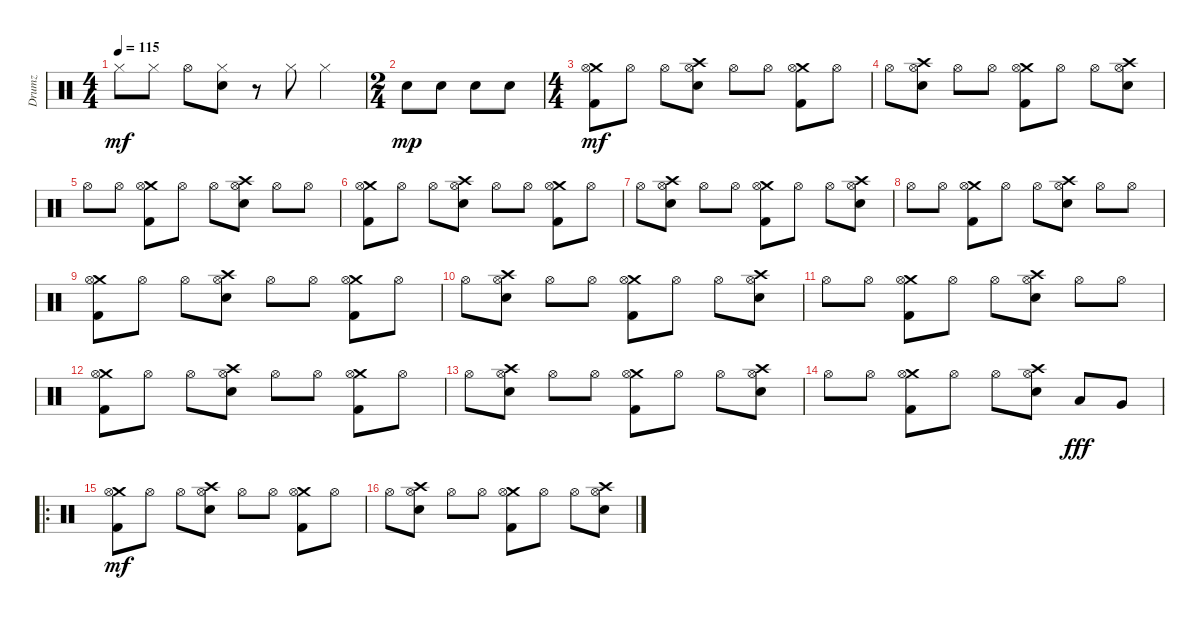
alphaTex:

\track ("Drumz" "Drumz") {instrument percussion}
\staff
\articulation defaults
\ts (4 4)
\tempo 115
\clef neutral
\ks c "Hi-Hat (closed)".8{dy mf} "Hi-Hat (closed)".8 "Hi-Hat (open)".8
("Hi-Hat (closed)" "Snare (hit) 2").8 r.8 "Hi-Hat (closed)".8 "Hi-Hat (closed)".4 |
\ts (2 4)
"Snare (hit) 2".8{dy mp} "Snare (hit) 2".8 "Snare (hit) 2".8 "Snare (hit) 2".8 |
\ts (4 4)
("Crash medium (hit)" "Hi-Hat (open)" "Kick (hit) 2").8{dy mf} "Hi-Hat (open)".8 "Hi-Hat (open)".8 ("Crash high (hit)" "Hi-Hat (open)" "Snare (hit) 2").8 "Hi-Hat (open)".8 "Hi-Hat (open)".8 ("Crash medium (hit)" "Hi-Hat (open)" "Kick (hit) 2").8 "Hi-Hat (open)".8 |
"Hi-Hat (open)".8 ("Crash high (hit)" "Hi-Hat (open)" "Snare (hit) 2").8 "Hi-Hat (open)".8 "Hi-Hat (open)".8 ("Crash medium (hit)" "Hi-Hat (open)" "Kick (hit) 2").8 "Hi-Hat (open)".8 "Hi-Hat (open)".8 ("Crash high (hit)" "Hi-Hat (open)" "Snare (hit) 2").8 |
"Hi-Hat (open)".8 "Hi-Hat (open)".8 ("Crash medium (hit)" "Hi-Hat (open)" "Kick (hit) 2").8 "Hi-Hat (open)".8 "Hi-Hat (open)".8 ("Crash high (hit)" "Hi-Hat (open)" "Snare (hit) 2").8 "Hi-Hat (open)".8 "Hi-Hat (open)".8 |
("Crash medium (hit)" "Hi-Hat (open)" "Kick (hit) 2").8 "Hi-Hat (open)".8 "Hi-Hat (open)".8 ("Crash high (hit)" "Hi-Hat (open)" "Snare (hit) 2").8 "Hi-Hat (open)".8 "Hi-Hat (open)".8 ("Crash medium (hit)" "Hi-Hat (open)" "Kick (hit) 2").8 "Hi-Hat (open)".8 |
"Hi-Hat (open)".8 ("Crash high (hit)" "Hi-Hat (open)" "Snare (hit) 2").8 "Hi-Hat (open)".8 "Hi-Hat (open)".8 ("Crash medium (hit)" "Hi-Hat (open)" "Kick (hit) 2").8 "Hi-Hat (open)".8 "Hi-Hat (open)".8 ("Crash high (hit)" "Hi-Hat (open)" "Snare (hit) 2").8 |
"Hi-Hat (open)".8 "Hi-Hat (open)".8 ("Crash medium (hit)" "Hi-Hat (open)" "Kick (hit) 2").8 "Hi-Hat (open)".8 "Hi-Hat (open)".8 ("Crash high (hit)" "Hi-Hat (open)" "Snare (hit) 2").8 "Hi-Hat (open)".8 "Hi-Hat (open)".8 |
("Crash medium (hit)" "Hi-Hat (open)" "Kick (hit) 2").8 "Hi-Hat (open)".8 "Hi-Hat (open)".8 ("Crash high (hit)" "Hi-Hat (open)" "Snare (hit) 2").8 "Hi-Hat (open)".8 "Hi-Hat (open)".8 ("Crash medium (hit)" "Hi-Hat (open)" "Kick (hit) 2").8 "Hi-Hat (open)".8 |
"Hi-Hat (open)".8 ("Crash high (hit)" "Hi-Hat (open)" "Snare (hit) 2").8 "Hi-Hat (open)".8 "Hi-Hat (open)".8 ("Crash medium (hit)" "Hi-Hat (open)" "Kick (hit) 2").8 "Hi-Hat (open)".8 "Hi-Hat (open)".8 ("Crash high (hit)" "Hi-Hat (open)" "Snare (hit) 2").8 |
"Hi-Hat (open)".8 "Hi-Hat (open)".8 ("Crash medium (hit)" "Hi-Hat (open)" "Kick (hit) 2").8 "Hi-Hat (open)".8 "Hi-Hat (open)".8 ("Crash high (hit)" "Hi-Hat (open)" "Snare (hit) 2").8 "Hi-Hat (open)".8 "Hi-Hat (open)".8 |
("Crash medium (hit)" "Hi-Hat (open)" "Kick (hit) 2").8 "Hi-Hat (open)".8 "Hi-Hat (open)".8 ("Crash high (hit)" "Hi-Hat (open)" "Snare (hit) 2").8 "Hi-Hat (open)".8 "Hi-Hat (open)".8 ("Crash medium (hit)" "Hi-Hat (open)" "Kick (hit) 2").8 "Hi-Hat (open)".8 |
"Hi-Hat (open)".8 ("Crash high (hit)" "Hi-Hat (open)" "Snare (hit) 2").8 "Hi-Hat (open)".8 "Hi-Hat (open)".8 ("Crash medium (hit)" "Hi-Hat (open)" "Kick (hit) 2").8 "Hi-Hat (open)".8 "Hi-Hat (open)".8 ("Crash high (hit)" "Hi-Hat (open)" "Snare (hit) 2").8 |
"Hi-Hat (open)".8 "Hi-Hat (open)".8 ("Crash medium (hit)" "Hi-Hat (open)" "Kick (hit) 2").8 "Hi-Hat (open)".8 "Hi-Hat (open)".8 ("Crash high (hit)" "Hi-Hat (open)" "Snare (hit) 2").8 "Low Floor Tom (hit)".8{dy fff} "Very Low Tom (hit)".8 |
\ro
("Crash medium (hit)" "Hi-Hat (open)" "Kick (hit) 2").8{dy mf} "Hi-Hat (open)".8 "Hi-Hat (open)".8 ("Crash high (hit)" "Hi-Hat (open)" "Snare (hit) 2").8 "Hi-Hat (open)".8 "Hi-Hat (open)".8 ("Crash medium (hit)" "Hi-Hat (open)" "Kick (hit) 2").8 "Hi-Hat (open)".8 |
"Hi-Hat (open)".8 ("Crash high (hit)" "Hi-Hat (open)" "Snare (hit) 2").8 "Hi-Hat (open)".8 "Hi-Hat (open)".8 ("Crash medium (hit)" "Hi-Hat (open)" "Kick (hit) 2").8 "Hi-Hat (open)".8 "Hi-Hat (open)".8 ("Crash high (hit)" "Hi-Hat (open)" "Snare (hit) 2").8
